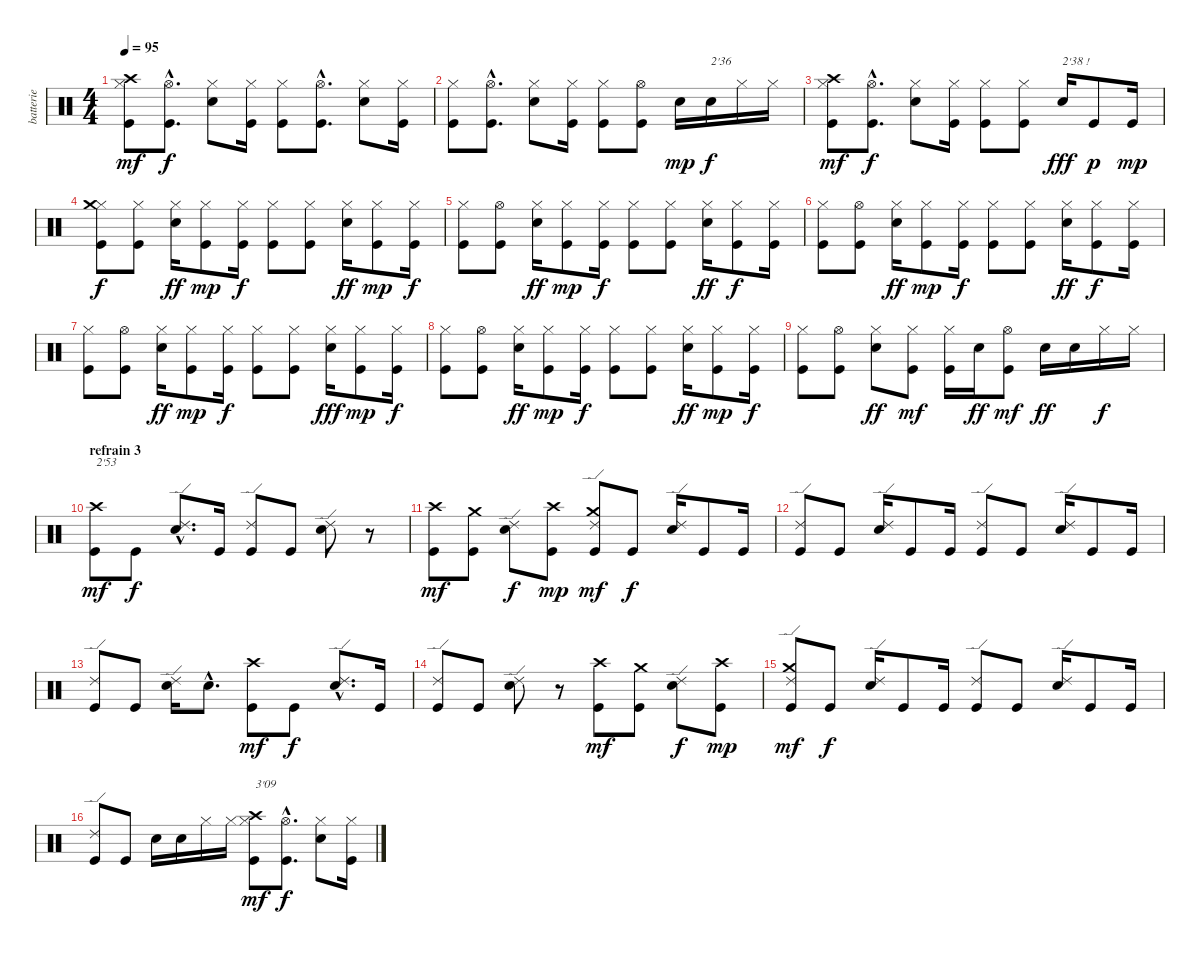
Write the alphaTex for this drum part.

\track ("batterie" "batterie") {instrument percussion}
\staff {score}
\articulation defaults
\ts (4 4)
\tempo 95
\clef neutral
\ks c
("Hi-Hat (closed)" "Kick (hit)" "Crash high (hit)").8{dy mf} ("Hi-Hat (open)"{hac} "Kick (hit)"{hac}).8{d dy f} ("Hi-Hat (closed)" "Electric Snare (hit)").8 ("Hi-Hat (closed)" "Kick (hit)").16 ("Hi-Hat (closed)" "Kick (hit)").8 ("Hi-Hat (open)"{hac} "Kick (hit)"{hac}).8{d} ("Hi-Hat (closed)" "Electric Snare (hit)").8 ("Hi-Hat (closed)" "Kick (hit)").16 |
("Hi-Hat (closed)" "Kick (hit)").8 ("Hi-Hat (open)"{hac} "Kick (hit)"{hac}).8{d} ("Hi-Hat (closed)" "Electric Snare (hit)").8 ("Hi-Hat (closed)" "Kick (hit)").16 ("Hi-Hat (closed)" "Kick (hit)").8 ("Hi-Hat (open)" "Kick (hit)").8 "Electric Snare (hit)".16{dy mp} "Electric Snare (hit)".16{txt "2'36" dy f} "Hi-Hat (closed)".16 "Hi-Hat (closed)".16 |
("Hi-Hat (closed)" "Kick (hit)" "Crash high (hit)").8{dy mf} ("Hi-Hat (open)"{hac} "Kick (hit)"{hac}).8{d dy f} ("Hi-Hat (closed)" "Electric Snare (hit)").8 ("Hi-Hat (closed)" "Kick (hit)").16 ("Hi-Hat (closed)" "Kick (hit)").8 ("Hi-Hat (closed)" "Kick (hit)").8 "Electric Snare (hit)".16{txt "2'38 !" dy fff} "Kick (hit)".8{dy p} "Kick (hit)".16{dy mp} |
("Hi-Hat (closed)" "Kick (hit)" "Crash medium (hit)").8{dy f} ("Hi-Hat (closed)" "Kick (hit)").8 ("Hi-Hat (closed)" "Electric Snare (hit)").16{dy ff} ("Hi-Hat (closed)" "Kick (hit)").8{dy mp} ("Hi-Hat (closed)" "Kick (hit)").16{dy f} ("Hi-Hat (closed)" "Kick (hit)").8 ("Hi-Hat (closed)" "Kick (hit)").8 ("Hi-Hat (closed)" "Electric Snare (hit)").16{dy ff} ("Hi-Hat (closed)" "Kick (hit)").8{dy mp} ("Hi-Hat (closed)" "Kick (hit)").16{dy f} |
("Hi-Hat (closed)" "Kick (hit)").8 ("Hi-Hat (open)" "Kick (hit)").8 ("Hi-Hat (closed)" "Electric Snare (hit)").16{dy ff} ("Hi-Hat (closed)" "Kick (hit)").8{dy mp} ("Hi-Hat (closed)" "Kick (hit)").16{dy f} ("Hi-Hat (closed)" "Kick (hit)").8 ("Hi-Hat (closed)" "Kick (hit)").8 ("Hi-Hat (closed)" "Electric Snare (hit)").16{dy ff} ("Hi-Hat (closed)" "Kick (hit)").8{dy f} ("Hi-Hat (closed)" "Kick (hit)").16 |
("Hi-Hat (closed)" "Kick (hit)").8 ("Hi-Hat (open)" "Kick (hit)").8 ("Hi-Hat (closed)" "Electric Snare (hit)").16{dy ff} ("Hi-Hat (closed)" "Kick (hit)").8{dy mp} ("Hi-Hat (closed)" "Kick (hit)").16{dy f} ("Hi-Hat (closed)" "Kick (hit)").8 ("Hi-Hat (closed)" "Kick (hit)").8 ("Hi-Hat (closed)" "Electric Snare (hit)").16{dy ff} ("Hi-Hat (closed)" "Kick (hit)").8{dy f} ("Hi-Hat (closed)" "Kick (hit)").16 |
("Hi-Hat (closed)" "Kick (hit)").8 ("Hi-Hat (open)" "Kick (hit)").8 ("Hi-Hat (closed)" "Electric Snare (hit)").16{dy ff} ("Hi-Hat (closed)" "Kick (hit)").8{dy mp} ("Hi-Hat (closed)" "Kick (hit)").16{dy f} ("Hi-Hat (closed)" "Kick (hit)").8 ("Hi-Hat (closed)" "Kick (hit)").8 ("Hi-Hat (closed)" "Electric Snare (hit)").16{dy fff} ("Hi-Hat (closed)" "Kick (hit)").8{dy mp} ("Hi-Hat (closed)" "Kick (hit)").16{dy f} |
("Hi-Hat (closed)" "Kick (hit)").8 ("Hi-Hat (open)" "Kick (hit)").8 ("Hi-Hat (closed)" "Electric Snare (hit)").16{dy ff} ("Hi-Hat (closed)" "Kick (hit)").8{dy mp} ("Hi-Hat (closed)" "Kick (hit)").16{dy f} ("Hi-Hat (closed)" "Kick (hit)").8 ("Hi-Hat (closed)" "Kick (hit)").8 ("Hi-Hat (closed)" "Electric Snare (hit)").16{dy ff} ("Hi-Hat (closed)" "Kick (hit)").8{dy mp} ("Hi-Hat (closed)" "Kick (hit)").16{dy f} |
("Hi-Hat (closed)" "Kick (hit)").8 ("Hi-Hat (open)" "Kick (hit)").8 ("Hi-Hat (closed)" "Electric Snare (hit)").8{dy ff} ("Hi-Hat (closed)" "Kick (hit)").8{dy mf} ("Hi-Hat (closed)" "Kick (hit)").16 "Electric Snare (hit)".16{dy ff} ("Hi-Hat (open)" "Kick (hit)").8{dy mf} "Electric Snare (hit)".16{dy ff} "Electric Snare (hit)".16 "Hi-Hat (closed)".16{dy f} "Hi-Hat (closed)".16 |
\section ("" "refrain 3")
("Kick (hit)" "Crash high (hit)").8{txt "2'53" dy mf} "Kick (hit)".8{dy f} ("Ride (edge) 2"{hac} "Electric Snare (hit)"{hac}).8{d} "Kick (hit)".16 ("Ride (edge) 2" "Kick (hit)").8 "Kick (hit)".8 ("Ride (edge) 2" "Electric Snare (hit)").8 r.8 |
("Kick (hit)" "Crash high (hit)").8{dy mf} ("Kick (hit)" "Crash medium (hit)").8 ("Ride (edge) 2" "Electric Snare (hit)").8{dy f} ("Kick (hit)" "Crash high (hit)").8{dy mp} ("Ride (edge) 2" "Kick (hit)" "Crash medium (hit)").8{dy mf} "Kick (hit)".8{dy f} ("Ride (edge) 2" "Electric Snare (hit)").16 "Kick (hit)".8 "Kick (hit)".16 |
("Ride (edge) 2" "Kick (hit)").8 "Kick (hit)".8 ("Ride (edge) 2" "Electric Snare (hit)").16 "Kick (hit)".8 "Kick (hit)".16 ("Ride (edge) 2" "Kick (hit)").8 "Kick (hit)".8 ("Ride (edge) 2" "Electric Snare (hit)").16 "Kick (hit)".8 "Kick (hit)".16 |
("Ride (edge) 2" "Kick (hit)").8 "Kick (hit)".8 ("Ride (edge) 2" "Electric Snare (hit)").16 "Electric Snare (hit)"{hac}.8{d} ("Kick (hit)" "Crash high (hit)").8{dy mf} "Kick (hit)".8{dy f} ("Ride (edge) 2"{hac} "Electric Snare (hit)"{hac}).8{d} "Kick (hit)".16 |
("Ride (edge) 2" "Kick (hit)").8 "Kick (hit)".8 ("Ride (edge) 2" "Electric Snare (hit)").8 r.8 ("Kick (hit)" "Crash high (hit)").8{dy mf} ("Kick (hit)" "Crash medium (hit)").8 ("Ride (edge) 2" "Electric Snare (hit)").8{dy f} ("Kick (hit)" "Crash high (hit)").8{dy mp} |
("Ride (edge) 2" "Kick (hit)" "Crash medium (hit)").8{dy mf} "Kick (hit)".8{dy f} ("Ride (edge) 2" "Electric Snare (hit)").16 "Kick (hit)".8 "Kick (hit)".16 ("Ride (edge) 2" "Kick (hit)").8 "Kick (hit)".8 ("Ride (edge) 2" "Electric Snare (hit)").16 "Kick (hit)".8 "Kick (hit)".16 |
("Ride (edge) 2" "Kick (hit)").8 "Kick (hit)".8 "Electric Snare (hit)".16 "Electric Snare (hit)".16 "Hi-Hat (closed)".16 "Hi-Hat (closed)".16 ("Hi-Hat (closed)" "Kick (hit)" "Crash high (hit)").8{txt "3'09" dy mf} ("Hi-Hat (open)"{hac} "Kick (hit)"{hac}).8{d dy f} ("Hi-Hat (closed)" "Electric Snare (hit)").8 ("Hi-Hat (closed)" "Kick (hit)").16
